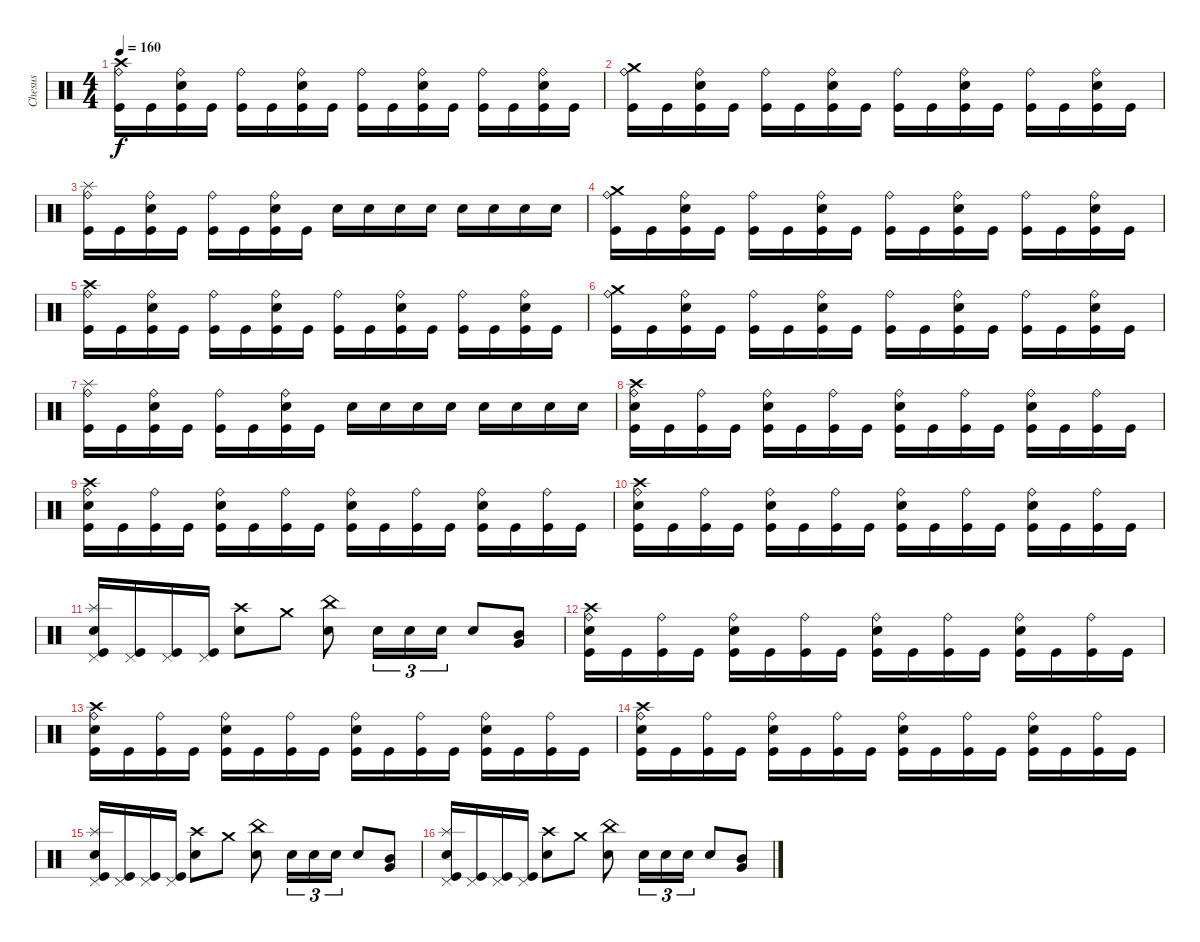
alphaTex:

\track ("Chesus" "Chesus") {instrument percussion}
\staff {score}
\articulation defaults
\ts (4 4)
\tempo 160
\clef neutral
\ks c
("Crash high (hit)" "Ride (bell)" "Kick (hit)").16{dy f} "Kick (hit)".16 ("Ride (bell)" "Snare (hit) 2" "Kick (hit)").16 "Kick (hit)".16 ("Ride (bell)" "Kick (hit)").16 "Kick (hit)".16 ("Ride (bell)" "Snare (hit) 2" "Kick (hit)").16 "Kick (hit)".16 ("Ride (bell)" "Kick (hit)").16 "Kick (hit)".16 ("Ride (bell)" "Snare (hit) 2" "Kick (hit)").16 "Kick (hit)".16 ("Ride (bell)" "Kick (hit)").16 "Kick (hit)".16 ("Ride (bell)" "Snare (hit) 2" "Kick (hit)").16 "Kick (hit)".16 |
("Crash medium (hit)" "Ride (bell)" "Kick (hit)").16 "Kick (hit)".16 ("Ride (bell)" "Snare (hit) 2" "Kick (hit)").16 "Kick (hit)".16 ("Ride (bell)" "Kick (hit)").16 "Kick (hit)".16 ("Ride (bell)" "Snare (hit) 2" "Kick (hit)").16 "Kick (hit)".16 ("Ride (bell)" "Kick (hit)").16 "Kick (hit)".16 ("Ride (bell)" "Snare (hit) 2" "Kick (hit)").16 "Kick (hit)".16 ("Ride (bell)" "Kick (hit)").16 "Kick (hit)".16 ("Ride (bell)" "Snare (hit) 2" "Kick (hit)").16 "Kick (hit)".16 |
("Splash (hit)" "Ride (bell)" "Kick (hit)").16 "Kick (hit)".16 ("Ride (bell)" "Snare (hit) 2" "Kick (hit)").16 "Kick (hit)".16 ("Ride (bell)" "Kick (hit)").16 "Kick (hit)".16 ("Ride (bell)" "Snare (hit) 2" "Kick (hit)").16 "Kick (hit)".16 "Snare (hit) 2".16 "Snare (hit) 2".16 "Snare (hit) 2".16 "Snare (hit) 2".16 "Snare (hit) 2".16 "Snare (hit) 2".16 "Snare (hit) 2".16 "Snare (hit) 2".16 |
("Crash medium (hit)" "Ride (bell)" "Kick (hit)").16 "Kick (hit)".16 ("Ride (bell)" "Snare (hit) 2" "Kick (hit)").16 "Kick (hit)".16 ("Ride (bell)" "Kick (hit)").16 "Kick (hit)".16 ("Ride (bell)" "Snare (hit) 2" "Kick (hit)").16 "Kick (hit)".16 ("Ride (bell)" "Kick (hit)").16 "Kick (hit)".16 ("Ride (bell)" "Snare (hit) 2" "Kick (hit)").16 "Kick (hit)".16 ("Ride (bell)" "Kick (hit)").16 "Kick (hit)".16 ("Ride (bell)" "Snare (hit) 2" "Kick (hit)").16 "Kick (hit)".16 |
("Crash high (hit)" "Ride (bell)" "Kick (hit)").16 "Kick (hit)".16 ("Ride (bell)" "Snare (hit) 2" "Kick (hit)").16 "Kick (hit)".16 ("Ride (bell)" "Kick (hit)").16 "Kick (hit)".16 ("Ride (bell)" "Snare (hit) 2" "Kick (hit)").16 "Kick (hit)".16 ("Ride (bell)" "Kick (hit)").16 "Kick (hit)".16 ("Ride (bell)" "Snare (hit) 2" "Kick (hit)").16 "Kick (hit)".16 ("Ride (bell)" "Kick (hit)").16 "Kick (hit)".16 ("Ride (bell)" "Snare (hit) 2" "Kick (hit)").16 "Kick (hit)".16 |
("Crash medium (hit)" "Ride (bell)" "Kick (hit)").16 "Kick (hit)".16 ("Ride (bell)" "Snare (hit) 2" "Kick (hit)").16 "Kick (hit)".16 ("Ride (bell)" "Kick (hit)").16 "Kick (hit)".16 ("Ride (bell)" "Snare (hit) 2" "Kick (hit)").16 "Kick (hit)".16 ("Ride (bell)" "Kick (hit)").16 "Kick (hit)".16 ("Ride (bell)" "Snare (hit) 2" "Kick (hit)").16 "Kick (hit)".16 ("Ride (bell)" "Kick (hit)").16 "Kick (hit)".16 ("Ride (bell)" "Snare (hit) 2" "Kick (hit)").16 "Kick (hit)".16 |
("Splash (hit)" "Ride (bell)" "Kick (hit)").16 "Kick (hit)".16 ("Ride (bell)" "Snare (hit) 2" "Kick (hit)").16 "Kick (hit)".16 ("Ride (bell)" "Kick (hit)").16 "Kick (hit)".16 ("Ride (bell)" "Snare (hit) 2" "Kick (hit)").16 "Kick (hit)".16 "Snare (hit) 2".16 "Snare (hit) 2".16 "Snare (hit) 2".16 "Snare (hit) 2".16 "Snare (hit) 2".16 "Snare (hit) 2".16 "Snare (hit) 2".16 "Snare (hit) 2".16 |
("Crash high (hit)" "Ride (bell)" "Snare (hit) 2" "Kick (hit)").16 "Kick (hit)".16 ("Ride (bell)" "Kick (hit)").16 "Kick (hit)".16 ("Ride (bell)" "Snare (hit) 2" "Kick (hit)").16 "Kick (hit)".16 ("Ride (bell)" "Kick (hit)").16 "Kick (hit)".16 ("Ride (bell)" "Snare (hit) 2" "Kick (hit)").16 "Kick (hit)".16 ("Ride (bell)" "Kick (hit)").16 "Kick (hit)".16 ("Ride (bell)" "Snare (hit) 2" "Kick (hit)").16 "Kick (hit)".16 ("Ride (bell)" "Kick (hit)").16 "Kick (hit)".16 |
("Crash high (hit)" "Ride (bell)" "Snare (hit) 2" "Kick (hit)").16 "Kick (hit)".16 ("Ride (bell)" "Kick (hit)").16 "Kick (hit)".16 ("Ride (bell)" "Snare (hit) 2" "Kick (hit)").16 "Kick (hit)".16 ("Ride (bell)" "Kick (hit)").16 "Kick (hit)".16 ("Ride (bell)" "Snare (hit) 2" "Kick (hit)").16 "Kick (hit)".16 ("Ride (bell)" "Kick (hit)").16 "Kick (hit)".16 ("Ride (bell)" "Snare (hit) 2" "Kick (hit)").16 "Kick (hit)".16 ("Ride (bell)" "Kick (hit)").16 "Kick (hit)".16 |
("Crash high (hit)" "Ride (bell)" "Snare (hit) 2" "Kick (hit)").16 "Kick (hit)".16 ("Ride (bell)" "Kick (hit)").16 "Kick (hit)".16 ("Ride (bell)" "Snare (hit) 2" "Kick (hit)").16 "Kick (hit)".16 ("Ride (bell)" "Kick (hit)").16 "Kick (hit)".16 ("Ride (bell)" "Snare (hit) 2" "Kick (hit)").16 "Kick (hit)".16 ("Ride (bell)" "Kick (hit)").16 "Kick (hit)".16 ("Ride (bell)" "Snare (hit) 2" "Kick (hit)").16 "Kick (hit)".16 ("Ride (bell)" "Kick (hit)").16 "Kick (hit)".16 |
("Splash (hit)" "Pedal Hi-Hat (hit)" "Snare (hit) 2" "Kick (hit)").16 ("Pedal Hi-Hat (hit)" "Kick (hit)").16 ("Pedal Hi-Hat (hit)" "Kick (hit)").16 ("Pedal Hi-Hat (hit)" "Kick (hit)").16 ("Crash high (hit)" "Snare (hit) 2").8 "Crash medium (hit)".8 ("China (hit)" "Snare (hit) 2").8 "Snare (hit) 2".16{tu (3 2)} "Snare (hit) 2".16{tu (3 2)} "Snare (hit) 2".16{tu (3 2)} "Snare (hit) 2".8 ("Very Low Tom (hit)" "Mid Tom (hit)").8 |
("Crash high (hit)" "Ride (bell)" "Snare (hit) 2" "Kick (hit)").16 "Kick (hit)".16 ("Ride (bell)" "Kick (hit)").16 "Kick (hit)".16 ("Ride (bell)" "Snare (hit) 2" "Kick (hit)").16 "Kick (hit)".16 ("Ride (bell)" "Kick (hit)").16 "Kick (hit)".16 ("Ride (bell)" "Snare (hit) 2" "Kick (hit)").16 "Kick (hit)".16 ("Ride (bell)" "Kick (hit)").16 "Kick (hit)".16 ("Ride (bell)" "Snare (hit) 2" "Kick (hit)").16 "Kick (hit)".16 ("Ride (bell)" "Kick (hit)").16 "Kick (hit)".16 |
("Crash high (hit)" "Ride (bell)" "Snare (hit) 2" "Kick (hit)").16 "Kick (hit)".16 ("Ride (bell)" "Kick (hit)").16 "Kick (hit)".16 ("Ride (bell)" "Snare (hit) 2" "Kick (hit)").16 "Kick (hit)".16 ("Ride (bell)" "Kick (hit)").16 "Kick (hit)".16 ("Ride (bell)" "Snare (hit) 2" "Kick (hit)").16 "Kick (hit)".16 ("Ride (bell)" "Kick (hit)").16 "Kick (hit)".16 ("Ride (bell)" "Snare (hit) 2" "Kick (hit)").16 "Kick (hit)".16 ("Ride (bell)" "Kick (hit)").16 "Kick (hit)".16 |
("Crash high (hit)" "Ride (bell)" "Snare (hit) 2" "Kick (hit)").16 "Kick (hit)".16 ("Ride (bell)" "Kick (hit)").16 "Kick (hit)".16 ("Ride (bell)" "Snare (hit) 2" "Kick (hit)").16 "Kick (hit)".16 ("Ride (bell)" "Kick (hit)").16 "Kick (hit)".16 ("Ride (bell)" "Snare (hit) 2" "Kick (hit)").16 "Kick (hit)".16 ("Ride (bell)" "Kick (hit)").16 "Kick (hit)".16 ("Ride (bell)" "Snare (hit) 2" "Kick (hit)").16 "Kick (hit)".16 ("Ride (bell)" "Kick (hit)").16 "Kick (hit)".16 |
("Splash (hit)" "Pedal Hi-Hat (hit)" "Snare (hit) 2" "Kick (hit)").16 ("Pedal Hi-Hat (hit)" "Kick (hit)").16 ("Pedal Hi-Hat (hit)" "Kick (hit)").16 ("Pedal Hi-Hat (hit)" "Kick (hit)").16 ("Crash high (hit)" "Snare (hit) 2").8 "Crash medium (hit)".8 ("China (hit)" "Snare (hit) 2").8 "Snare (hit) 2".16{tu (3 2)} "Snare (hit) 2".16{tu (3 2)} "Snare (hit) 2".16{tu (3 2)} "Snare (hit) 2".8 ("Very Low Tom (hit)" "Mid Tom (hit)").8 |
("Splash (hit)" "Pedal Hi-Hat (hit)" "Snare (hit) 2" "Kick (hit)").16 ("Pedal Hi-Hat (hit)" "Kick (hit)").16 ("Pedal Hi-Hat (hit)" "Kick (hit)").16 ("Pedal Hi-Hat (hit)" "Kick (hit)").16 ("Crash high (hit)" "Snare (hit) 2").8 "Crash medium (hit)".8 ("China (hit)" "Snare (hit) 2").8 "Snare (hit) 2".16{tu (3 2)} "Snare (hit) 2".16{tu (3 2)} "Snare (hit) 2".16{tu (3 2)} "Snare (hit) 2".8 ("Very Low Tom (hit)" "Mid Tom (hit)").8
